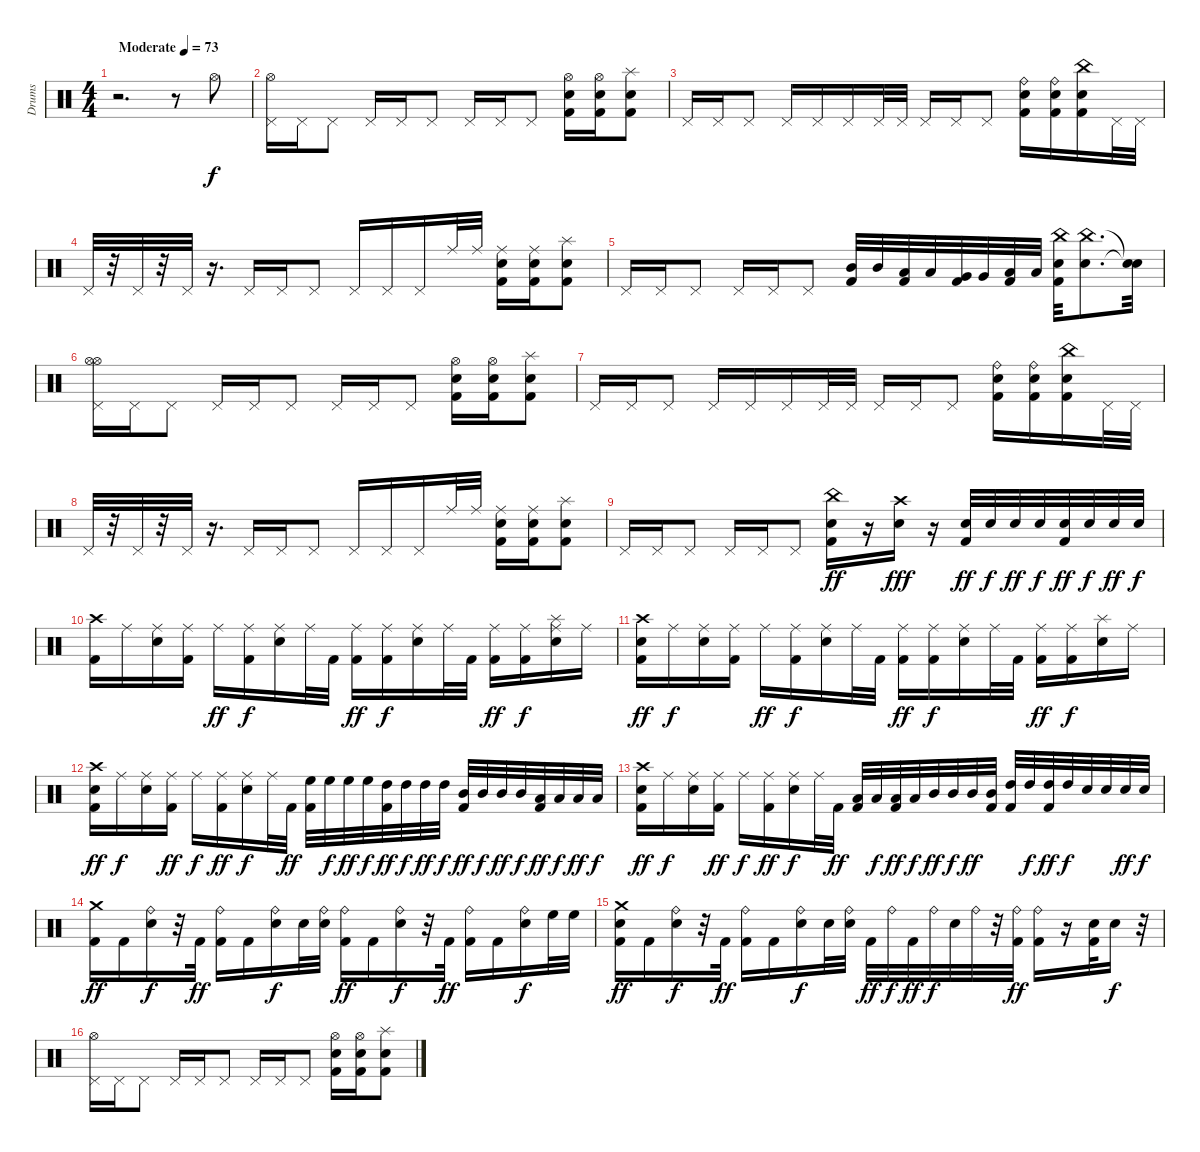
\track ("Drums" "Drums") {instrument percussion}
\staff {score}
\articulation defaults
\ts (4 4)
\tempo (73 "Moderate")
\clef neutral
\ks c
r.2{d dy f} r.8 "Hi-Hat (open)".8 |
("Pedal Hi-Hat (hit)" "Hi-Hat (open)").16 "Pedal Hi-Hat (hit)".16 "Pedal Hi-Hat (hit)".8 "Pedal Hi-Hat (hit)".16 "Pedal Hi-Hat (hit)".16 "Pedal Hi-Hat (hit)".8 "Pedal Hi-Hat (hit)".16 "Pedal Hi-Hat (hit)".16 "Pedal Hi-Hat (hit)".8 ("Hi-Hat (open)" "Kick (hit) 2" "Snare (hit) 2").16 ("Hi-Hat (open)" "Kick (hit) 2" "Snare (hit) 2").16 ("Splash (hit)" "Kick (hit) 2" "Snare (hit) 2").8 |
"Pedal Hi-Hat (hit)".16 "Pedal Hi-Hat (hit)".16 "Pedal Hi-Hat (hit)".8 "Pedal Hi-Hat (hit)".16 "Pedal Hi-Hat (hit)".16 "Pedal Hi-Hat (hit)".16 "Pedal Hi-Hat (hit)".32 "Pedal Hi-Hat (hit)".32 "Pedal Hi-Hat (hit)".16 "Pedal Hi-Hat (hit)".16 "Pedal Hi-Hat (hit)".8 ("Ride (bell)" "Kick (hit) 2" "Snare (hit) 2").16 ("Ride (bell)" "Kick (hit) 2" "Snare (hit) 2").16 ("China (hit)" "Kick (hit) 2" "Snare (hit) 2").16 "Pedal Hi-Hat (hit)".32 "Pedal Hi-Hat (hit)".32 |
"Pedal Hi-Hat (hit)".32 r.32 "Pedal Hi-Hat (hit)".32 r.32 "Pedal Hi-Hat (hit)".32 r.16{d} "Pedal Hi-Hat (hit)".16 "Pedal Hi-Hat (hit)".16 "Pedal Hi-Hat (hit)".8 "Pedal Hi-Hat (hit)".16 "Pedal Hi-Hat (hit)".16 "Pedal Hi-Hat (hit)".16 "Ride (middle)".32 "Ride (middle)".32 ("Ride (middle)" "Kick (hit) 2" "Snare (hit) 2").16 ("Ride (middle)" "Kick (hit) 2" "Snare (hit) 2").16 ("Splash (hit)" "Kick (hit) 2" "Snare (hit) 2").8 |
"Pedal Hi-Hat (hit)".16 "Pedal Hi-Hat (hit)".16 "Pedal Hi-Hat (hit)".8 "Pedal Hi-Hat (hit)".16 "Pedal Hi-Hat (hit)".16 "Pedal Hi-Hat (hit)".8 ("Kick (hit) 2" "Mid Tom (hit)").32 "Mid Tom (hit)".32 ("Kick (hit) 2" "Low Tom (hit)").32 "Low Tom (hit)".32 ("Kick (hit) 2" "Very Low Tom (hit)").32 "Very Low Tom (hit)".32 ("Kick (hit) 2" "Low Floor Tom (hit)").32 "Low Floor Tom (hit)".32 ("China (hit)" "Snare (hit) 2" "Kick (hit) 2").32 ("China (hit)" "Snare (hit) 2").8{d} ("Snare (hit)"{t} "Snare (hit)"{t}).32 |
("Hi-Hat (open)" "Hi-Hat (open)" "Pedal Hi-Hat (hit)").16 "Pedal Hi-Hat (hit)".16 "Pedal Hi-Hat (hit)".8 "Pedal Hi-Hat (hit)".16 "Pedal Hi-Hat (hit)".16 "Pedal Hi-Hat (hit)".8 "Pedal Hi-Hat (hit)".16 "Pedal Hi-Hat (hit)".16 "Pedal Hi-Hat (hit)".8 ("Snare (hit) 2" "Kick (hit) 2" "Hi-Hat (open)").16 ("Snare (hit) 2" "Kick (hit) 2" "Hi-Hat (open)").16 ("Snare (hit) 2" "Kick (hit) 2" "Splash (hit)").8 |
"Pedal Hi-Hat (hit)".16 "Pedal Hi-Hat (hit)".16 "Pedal Hi-Hat (hit)".8 "Pedal Hi-Hat (hit)".16 "Pedal Hi-Hat (hit)".16 "Pedal Hi-Hat (hit)".16 "Pedal Hi-Hat (hit)".32 "Pedal Hi-Hat (hit)".32 "Pedal Hi-Hat (hit)".16 "Pedal Hi-Hat (hit)".16 "Pedal Hi-Hat (hit)".8 ("Snare (hit) 2" "Kick (hit) 2" "Ride (bell)").16 ("Snare (hit) 2" "Kick (hit) 2" "Ride (bell)").16 ("Snare (hit) 2" "Kick (hit) 2" "China (hit)").16 "Pedal Hi-Hat (hit)".32 "Pedal Hi-Hat (hit)".32 |
"Pedal Hi-Hat (hit)".32 r.32 "Pedal Hi-Hat (hit)".32 r.32 "Pedal Hi-Hat (hit)".32 r.16{d} "Pedal Hi-Hat (hit)".16 "Pedal Hi-Hat (hit)".16 "Pedal Hi-Hat (hit)".8 "Pedal Hi-Hat (hit)".16 "Pedal Hi-Hat (hit)".16 "Pedal Hi-Hat (hit)".16 "Ride (middle)".32 "Ride (middle)".32 ("Snare (hit) 2" "Kick (hit) 2" "Ride (middle)").16 ("Snare (hit) 2" "Kick (hit) 2" "Ride (middle)").16 ("Snare (hit) 2" "Kick (hit) 2" "Splash (hit)").8 |
"Pedal Hi-Hat (hit)".16 "Pedal Hi-Hat (hit)".16 "Pedal Hi-Hat (hit)".8 "Pedal Hi-Hat (hit)".16 "Pedal Hi-Hat (hit)".16 "Pedal Hi-Hat (hit)".8 ("Kick (hit) 2" "China (hit)" "Snare (hit) 2").16{dy ff} r.16 ("Crash high (hit)" "Snare (hit) 2").16{dy fff} r.16 ("Kick (hit) 2" "Snare (hit) 2").32{dy ff} "Snare (hit) 2".32{dy f} "Snare (hit) 2".32{dy ff} "Snare (hit) 2".32{dy f} ("Kick (hit) 2" "Snare (hit) 2").32{dy ff} "Snare (hit) 2".32{dy f} "Snare (hit) 2".32{dy ff} "Snare (hit) 2".32{dy f} |
("Crash high (hit)" "Kick (hit) 2").16 "Ride (middle)".16 ("Ride (middle)" "Snare (hit) 2").16 ("Ride (middle)" "Kick (hit) 2").16 "Ride (middle)".16{dy ff} ("Ride (middle)" "Kick (hit) 2").16{dy f} ("Ride (middle)" "Snare (hit) 2").16 "Ride (middle)".32 "Kick (hit) 2".32 ("Ride (middle)" "Kick (hit) 2").16{dy ff} ("Ride (middle)" "Kick (hit) 2").16{dy f} ("Ride (middle)" "Snare (hit) 2").16 "Ride (middle)".32 "Kick (hit) 2".32 ("Ride (middle)" "Kick (hit) 2").16{dy ff} ("Ride (middle)" "Kick (hit) 2").16{dy f} ("Splash (hit)" "Ride (middle)" "Snare (hit) 2").16 "Ride (middle)".16 |
("Snare (hit) 2" "Kick (hit) 2" "Crash high (hit)").16{dy ff} "Ride (middle)".16{dy f} ("Snare (hit) 2" "Ride (middle)").16 ("Kick (hit) 2" "Ride (middle)").16 "Ride (middle)".16{dy ff} ("Kick (hit) 2" "Ride (middle)").16{dy f} ("Snare (hit) 2" "Ride (middle)").16 "Ride (middle)".32 "Kick (hit) 2".32 ("Kick (hit) 2" "Ride (middle)").16{dy ff} ("Kick (hit) 2" "Ride (middle)").16{dy f} ("Snare (hit) 2" "Ride (middle)").16 "Ride (middle)".32 "Kick (hit) 2".32 ("Kick (hit) 2" "Ride (middle)").16{dy ff} ("Kick (hit) 2" "Ride (middle)").16{dy f} ("Snare (hit) 2" "Splash (hit)").16 "Ride (middle)".16 |
("Snare (hit) 2" "Kick (hit) 2" "Crash high (hit)").16{dy ff} "Ride (middle)".16{dy f} ("Snare (hit) 2" "Ride (middle)").16 ("Kick (hit) 2" "Ride (middle)").16{dy ff} "Ride (middle)".16{dy f} ("Kick (hit) 2" "Ride (middle)").16{dy ff} ("Snare (hit) 2" "Ride (middle)").16{dy f} "Ride (middle)".32 "Kick (hit) 2".32{dy ff} ("High Floor Tom (hit)" "Kick (hit) 2").32 "High Floor Tom (hit)".32{dy f} "High Floor Tom (hit)".32{dy ff} "High Floor Tom (hit)".32{dy f} ("Kick (hit) 2" "High Tom (hit)").32{dy ff} "High Tom (hit)".32{dy f} "High Tom (hit)".32{dy ff} "High Tom (hit)".32{dy f} ("Mid Tom (hit)" "Kick (hit) 2").32{dy ff} "Mid Tom (hit)".32{dy f} "Mid Tom (hit)".32{dy ff} "Mid Tom (hit)".32{dy f} ("Kick (hit) 2" "Low Tom (hit)").32{dy ff} "Low Tom (hit)".32{dy f} "Low Tom (hit)".32{dy ff} "Low Tom (hit)".32{dy f} |
("Snare (hit) 2" "Kick (hit) 2" "Crash high (hit)").16{dy ff} "Ride (middle)".16{dy f} ("Snare (hit) 2" "Ride (middle)").16 ("Kick (hit) 2" "Ride (middle)").16{dy ff} "Ride (middle)".16{dy f} ("Kick (hit) 2" "Ride (middle)").16{dy ff} ("Snare (hit) 2" "Ride (middle)").16{dy f} "Ride (middle)".32 "Kick (hit) 2".32{dy ff} ("Low Tom (hit)" "Kick (hit) 2").32 "Low Tom (hit)".32{dy f} ("Low Tom (hit)" "Kick (hit) 2").32{dy ff} "Low Tom (hit)".32{dy f} "Mid Tom (hit)".32{dy ff} "Mid Tom (hit)".32{dy f} "Mid Tom (hit)".32{dy ff} ("Mid Tom (hit)" "Kick (hit) 2").32 ("High Tom (hit)" "Kick (hit) 2").32 "High Tom (hit)".32{dy f} ("High Tom (hit)" "Kick (hit) 2").32{dy ff} "High Tom (hit)".32{dy f} "Snare (hit) 2".32 "Snare (hit) 2".32 "Snare (hit) 2".32{dy ff} "Snare (hit) 2".32{dy f} |
("Kick (hit) 2" "Crash medium (hit)").16{dy ff} "Kick (hit) 2".16 ("Snare (hit) 2" "Ride (bell)").16{dy f} r.32 "Kick (hit) 2".32{dy ff} ("Kick (hit) 2" "Ride (bell)").16 "Kick (hit) 2".16 ("Snare (hit) 2" "Ride (bell)").16{dy f} "Snare (hit) 2".32 ("Snare (hit) 2" "Ride (bell)").32 ("Kick (hit) 2" "Ride (bell)").16{dy ff} "Kick (hit) 2".16 ("Snare (hit) 2" "Ride (bell)").16{dy f} r.32 "Kick (hit) 2".32{dy ff} ("Kick (hit) 2" "Ride (bell)").16 "Kick (hit) 2".16 ("Snare (hit) 2" "Ride (bell)").16{dy f} "High Floor Tom (hit)".32 "High Floor Tom (hit)".32 |
("Crash medium (hit)" "Snare (hit) 2" "Kick (hit) 2").16{dy ff} "Kick (hit) 2".16 ("Ride (bell)" "Snare (hit) 2").16{dy f} r.32 "Kick (hit) 2".32{dy ff} ("Ride (bell)" "Kick (hit) 2").16 "Kick (hit) 2".16 ("Ride (bell)" "Snare (hit) 2").16{dy f} "Snare (hit) 2".32 ("Ride (bell)" "Snare (hit) 2").32 "Kick (hit) 2".32{dy ff} "Ride (bell)".32{dy f} "Kick (hit) 2".32{dy ff} "Ride (bell)".32{dy f} "Snare (hit) 2".32 "Ride (bell)".32 r.32 ("Ride (bell)" "Kick (hit) 2").32{dy ff} ("Ride (bell)" "Kick (hit) 2").16 r.16 ("Kick (hit) 2" "Snare (hit) 2").32 "Snare (hit) 2".16{dy f} r.32 |
("Hi-Hat (open)" "Pedal Hi-Hat (hit)").16 "Pedal Hi-Hat (hit)".16 "Pedal Hi-Hat (hit)".8 "Pedal Hi-Hat (hit)".16 "Pedal Hi-Hat (hit)".16 "Pedal Hi-Hat (hit)".8 "Pedal Hi-Hat (hit)".16 "Pedal Hi-Hat (hit)".16 "Pedal Hi-Hat (hit)".8 ("Snare (hit) 2" "Kick (hit) 2" "Hi-Hat (open)").16 ("Snare (hit) 2" "Kick (hit) 2" "Hi-Hat (open)").16 ("Snare (hit) 2" "Kick (hit) 2" "Splash (hit)").8
